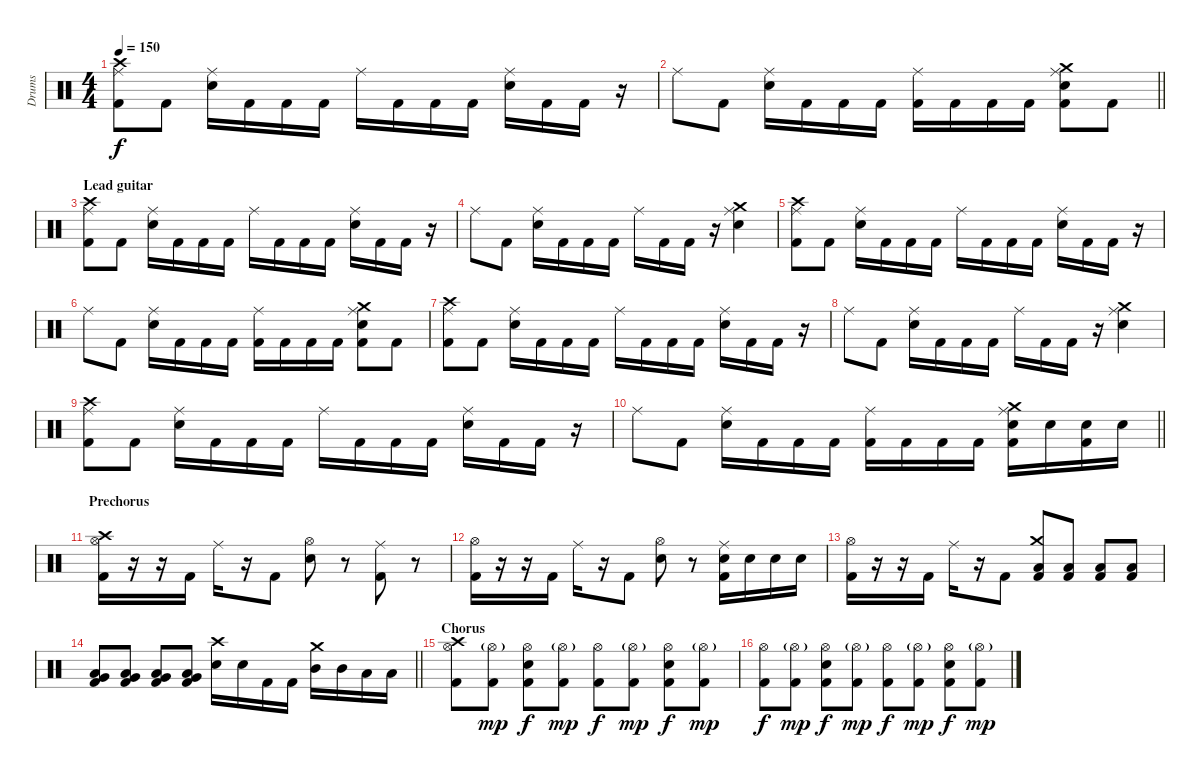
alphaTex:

\track ("Drums" "Drums") {instrument percussion}
\staff {score}
\articulation defaults
\ts (4 4)
\tempo 150
\clef neutral
\ks c
("Crash high (hit)" "Ride (middle)" "Kick (hit) 2").8{dy f} "Kick (hit) 2".8 ("Ride (middle)" "Snare (hit) 2").16 "Kick (hit) 2".16 "Kick (hit) 2".16 "Kick (hit) 2".16 "Ride (middle)".16 "Kick (hit) 2".16 "Kick (hit) 2".16 "Kick (hit) 2".16 ("Ride (middle)" "Snare (hit) 2").16 "Kick (hit) 2".16 "Kick (hit) 2".16 r.16 |
\barLineRight lightlight "Ride (middle)".8 "Kick (hit) 2".8
("Ride (middle)" "Snare (hit) 2").16 "Kick (hit) 2".16 "Kick (hit) 2".16 "Kick (hit) 2".16 ("Ride (middle)" "Kick (hit) 2").16 "Kick (hit) 2".16 "Kick (hit) 2".16 "Kick (hit) 2".16 ("Crash medium (hit)" "Ride (middle)" "Snare (hit) 2" "Kick (hit) 2").8 "Kick (hit) 2".8 |
\section ("" "Lead guitar")
("Crash high (hit)" "Ride (middle)" "Kick (hit) 2").8 "Kick (hit) 2".8 ("Ride (middle)" "Snare (hit) 2").16 "Kick (hit) 2".16 "Kick (hit) 2".16 "Kick (hit) 2".16 "Ride (middle)".16 "Kick (hit) 2".16 "Kick (hit) 2".16 "Kick (hit) 2".16 ("Ride (middle)" "Snare (hit) 2").16 "Kick (hit) 2".16 "Kick (hit) 2".16 r.16 |
"Ride (middle)".8 "Kick (hit) 2".8 ("Ride (middle)" "Snare (hit) 2").16 "Kick (hit) 2".16 "Kick (hit) 2".16 "Kick (hit) 2".16 "Ride (middle)".16 "Kick (hit) 2".16 "Kick (hit) 2".16 r.16 ("Crash medium (hit)" "Ride (middle)" "Snare (hit) 2").4 |
("Crash high (hit)" "Ride (middle)" "Kick (hit) 2").8 "Kick (hit) 2".8 ("Ride (middle)" "Snare (hit) 2").16 "Kick (hit) 2".16 "Kick (hit) 2".16 "Kick (hit) 2".16 "Ride (middle)".16 "Kick (hit) 2".16 "Kick (hit) 2".16 "Kick (hit) 2".16 ("Ride (middle)" "Snare (hit) 2").16 "Kick (hit) 2".16 "Kick (hit) 2".16 r.16 |
"Ride (middle)".8 "Kick (hit) 2".8 ("Ride (middle)" "Snare (hit) 2").16 "Kick (hit) 2".16 "Kick (hit) 2".16 "Kick (hit) 2".16 ("Ride (middle)" "Kick (hit) 2").16 "Kick (hit) 2".16 "Kick (hit) 2".16 "Kick (hit) 2".16 ("Crash medium (hit)" "Ride (middle)" "Snare (hit) 2" "Kick (hit) 2").8 "Kick (hit) 2".8 |
("Crash high (hit)" "Ride (middle)" "Kick (hit) 2").8 "Kick (hit) 2".8 ("Ride (middle)" "Snare (hit) 2").16 "Kick (hit) 2".16 "Kick (hit) 2".16 "Kick (hit) 2".16 "Ride (middle)".16 "Kick (hit) 2".16 "Kick (hit) 2".16 "Kick (hit) 2".16 ("Ride (middle)" "Snare (hit) 2").16 "Kick (hit) 2".16 "Kick (hit) 2".16 r.16 |
"Ride (middle)".8 "Kick (hit) 2".8 ("Ride (middle)" "Snare (hit) 2").16 "Kick (hit) 2".16 "Kick (hit) 2".16 "Kick (hit) 2".16 "Ride (middle)".16 "Kick (hit) 2".16 "Kick (hit) 2".16 r.16 ("Crash medium (hit)" "Ride (middle)" "Snare (hit) 2").4 |
("Crash high (hit)" "Ride (middle)" "Kick (hit) 2").8 "Kick (hit) 2".8 ("Ride (middle)" "Snare (hit) 2").16 "Kick (hit) 2".16 "Kick (hit) 2".16 "Kick (hit) 2".16 "Ride (middle)".16 "Kick (hit) 2".16 "Kick (hit) 2".16 "Kick (hit) 2".16 ("Ride (middle)" "Snare (hit) 2").16 "Kick (hit) 2".16 "Kick (hit) 2".16 r.16 |
\barLineRight lightlight "Ride (middle)".8 "Kick (hit) 2".8
("Ride (middle)" "Snare (hit) 2").16 "Kick (hit) 2".16 "Kick (hit) 2".16 "Kick (hit) 2".16 ("Ride (middle)" "Kick (hit) 2").16 "Kick (hit) 2".16 "Kick (hit) 2".16 "Kick (hit) 2".16 ("Crash medium (hit)" "Ride (middle)" "Snare (hit) 2" "Kick (hit) 2").16 "Snare (hit) 2".16 ("Snare (hit) 2" "Kick (hit) 2").16 "Snare (hit) 2".16 |
\section ("" "Prechorus")
("Crash high (hit)" "Hi-Hat (open)" "Kick (hit) 2").16 r.16 r.16 "Kick (hit) 2".16 "Ride (middle)".16 r.16 "Kick (hit) 2".8 ("Hi-Hat (open)" "Snare (hit) 2").8 r.8 ("Ride (middle)" "Kick (hit) 2").8 r.8 |
("Hi-Hat (open)" "Kick (hit) 2").16 r.16 r.16 "Kick (hit) 2".16 "Ride (middle)".16 r.16 "Kick (hit) 2".8 ("Hi-Hat (open)" "Snare (hit) 2").8 r.8 ("Ride (middle)" "Snare (hit) 2" "Kick (hit) 2").16 "Snare (hit) 2".16 "Snare (hit) 2".16 "Snare (hit) 2".16 |
("Hi-Hat (open)" "Kick (hit) 2").16 r.16 r.16 "Kick (hit) 2".16 "Ride (middle)".16 r.16 "Kick (hit) 2".8 ("Crash medium (hit)" "Low Floor Tom (hit)" "Kick (hit) 2").8 ("Low Floor Tom (hit)" "Kick (hit) 2").8 ("Low Floor Tom (hit)" "Kick (hit) 2").8 ("Low Floor Tom (hit)" "Kick (hit) 2").8 |
\barLineRight lightlight
("Very Low Tom (hit)" "Low Floor Tom (hit)" "Kick (hit) 2").8 ("Very Low Tom (hit)" "Low Floor Tom (hit)" "Kick (hit) 2").8 ("Very Low Tom (hit)" "Low Floor Tom (hit)" "Kick (hit) 2").8 ("Very Low Tom (hit)" "Low Floor Tom (hit)" "Kick (hit) 2").8 ("Crash high (hit)" "Snare (hit) 2").16 "Snare (hit) 2".16 "Kick (hit) 2".16 "Kick (hit) 2".16 ("Crash medium (hit)" "Mid Tom (hit)").16 "Mid Tom (hit)".16 "Low Tom (hit)".16 "Low Tom (hit)".16 |
\section ("" "Chorus")
("Crash high (hit)" "Hi-Hat (open)" "Kick (hit) 2").8 ("Hi-Hat (open)"{g} "Kick (hit) 2").8{dy mp} ("Hi-Hat (open)" "Snare (hit) 2" "Kick (hit) 2").8{dy f} ("Hi-Hat (open)"{g} "Kick (hit) 2").8{dy mp} ("Hi-Hat (open)" "Kick (hit) 2").8{dy f} ("Hi-Hat (open)"{g} "Kick (hit) 2").8{dy mp} ("Hi-Hat (open)" "Snare (hit) 2" "Kick (hit) 2").8{dy f} ("Hi-Hat (open)"{g} "Kick (hit) 2").8{dy mp} |
("Hi-Hat (open)" "Kick (hit) 2").8{dy f} ("Hi-Hat (open)"{g} "Kick (hit) 2").8{dy mp} ("Hi-Hat (open)" "Snare (hit) 2" "Kick (hit) 2").8{dy f} ("Hi-Hat (open)"{g} "Kick (hit) 2").8{dy mp} ("Hi-Hat (open)" "Kick (hit) 2").8{dy f} ("Hi-Hat (open)"{g} "Kick (hit) 2").8{dy mp} ("Hi-Hat (open)" "Snare (hit) 2" "Kick (hit) 2").8{dy f} ("Hi-Hat (open)"{g} "Kick (hit) 2").8{dy mp}
